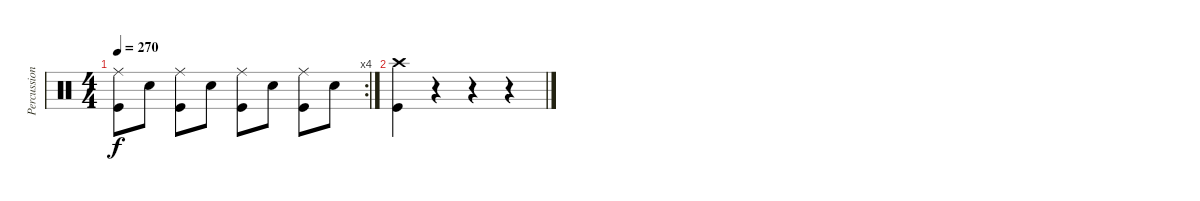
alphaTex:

\track ("Percussion" "Percussion") {instrument percussion}
\staff {score}
\articulation defaults
\rc 4
\ts (4 4)
\tempo 270
\clef neutral
\ks c
("Ride (middle)" "Kick (hit)").8{dy f} "Snare (hit) 2".8 ("Ride (middle)" "Kick (hit)").8 "Snare (hit) 2".8 ("Ride (middle)" "Kick (hit)").8 "Snare (hit) 2".8 ("Ride (middle)" "Kick (hit)").8 "Snare (hit) 2".8 |
("Crash high (hit)" "Kick (hit)").4 r.4 r.4 r.4
